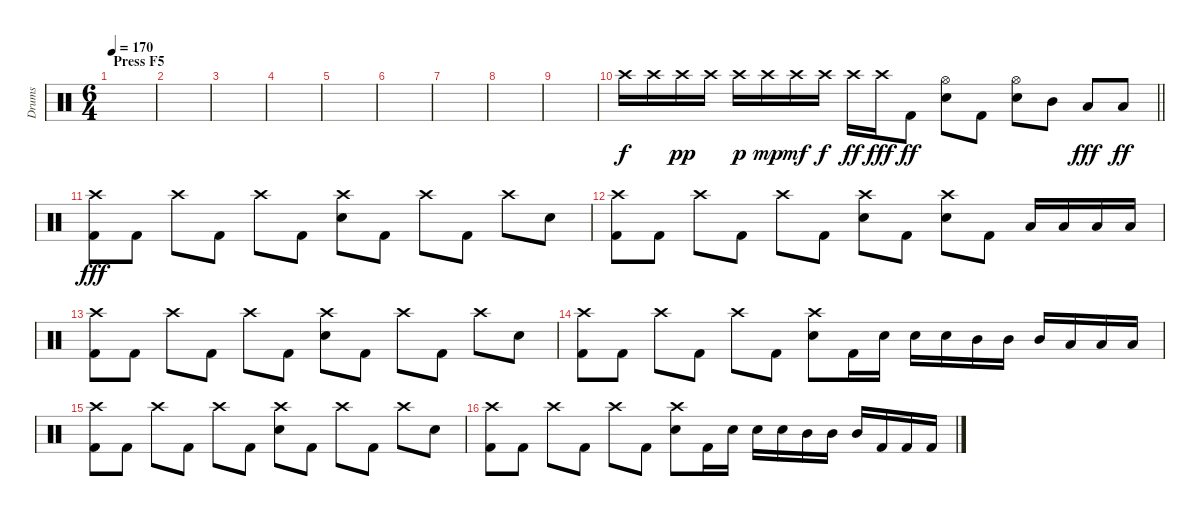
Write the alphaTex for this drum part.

\track ("Drums" "Drums") {instrument percussion}
\staff {score}
\articulation defaults
\ts (6 4)
\section ("" "Press F5")
\tempo 170
\clef neutral
\ks c
|
|
|
|
|
|
|
|
|
\barLineRight lightlight "Crash high (hit)".16 "Crash high (hit)".16 "Crash high (hit)".16{dy pp} "Crash high (hit)".16 "Crash high (hit)".16{dy p} "Crash high (hit)".16{dy mp} "Crash high (hit)".16{dy mf} "Crash high (hit)".16{dy f} "Crash high (hit)".16{dy ff} "Crash high (hit)".16{dy fff} "Kick (hit) 2".8{dy ff}
("Hi-Hat (open)" "Snare (hit) 2").8 "Kick (hit) 2".8 ("Hi-Hat (open)" "Snare (hit) 2").8 "Mid Tom (hit)".8 "Low Tom (hit)".8{dy fff} "Low Tom (hit)".8{dy ff} |
\section ("" "")
("Crash high (hit)" "Kick (hit) 2").8{dy fff} "Kick (hit) 2".8 "Crash high (hit)".8 "Kick (hit) 2".8 "Crash high (hit)".8 "Kick (hit) 2".8 ("Crash high (hit)" "Snare (hit) 2").8 "Kick (hit) 2".8 "Crash high (hit)".8 "Kick (hit) 2".8 "Crash high (hit)".8 "Snare (hit) 2".8 |
("Crash high (hit)" "Kick (hit) 2").8 "Kick (hit) 2".8 "Crash high (hit)".8 "Kick (hit) 2".8 "Crash high (hit)".8 "Kick (hit) 2".8 ("Crash high (hit)" "Snare (hit) 2").8 "Kick (hit) 2".8 ("Crash high (hit)" "Snare (hit) 2").8 "Kick (hit) 2".8 "Low Tom (hit)".16 "Low Tom (hit)".16 "Low Tom (hit)".16 "Low Tom (hit)".16 |
("Crash high (hit)" "Kick (hit) 2").8 "Kick (hit) 2".8 "Crash high (hit)".8 "Kick (hit) 2".8 "Crash high (hit)".8 "Kick (hit) 2".8 ("Crash high (hit)" "Snare (hit) 2").8 "Kick (hit) 2".8 "Crash high (hit)".8 "Kick (hit) 2".8 "Crash high (hit)".8 "Snare (hit) 2".8 |
("Crash high (hit)" "Kick (hit) 2").8 "Kick (hit) 2".8 "Crash high (hit)".8 "Kick (hit) 2".8 "Crash high (hit)".8 "Kick (hit) 2".8 ("Crash high (hit)" "Snare (hit) 2").8 "Kick (hit) 2".16 "Snare (hit) 2".16 "Snare (hit) 2".16 "Snare (hit) 2".16 "Mid Tom (hit)".16 "Mid Tom (hit)".16 "Mid Tom (hit)".16 "Low Tom (hit)".16 "Low Tom (hit)".16 "Low Tom (hit)".16 |
("Crash high (hit)" "Kick (hit) 2").8 "Kick (hit) 2".8 "Crash high (hit)".8 "Kick (hit) 2".8 "Crash high (hit)".8 "Kick (hit) 2".8 ("Crash high (hit)" "Snare (hit) 2").8 "Kick (hit) 2".8 "Crash high (hit)".8 "Kick (hit) 2".8 "Crash high (hit)".8 "Snare (hit) 2".8 |
("Crash high (hit)" "Kick (hit) 2").8 "Kick (hit) 2".8 "Crash high (hit)".8 "Kick (hit) 2".8 "Crash high (hit)".8 "Kick (hit) 2".8 ("Crash high (hit)" "Snare (hit) 2").8 "Kick (hit) 2".16 "Snare (hit) 2".16 "Snare (hit) 2".16 "Snare (hit) 2".16 "Mid Tom (hit)".16 "Mid Tom (hit)".16 "Mid Tom (hit)".16 "Kick (hit) 2".16 "Kick (hit) 2".16 "Kick (hit) 2".16
